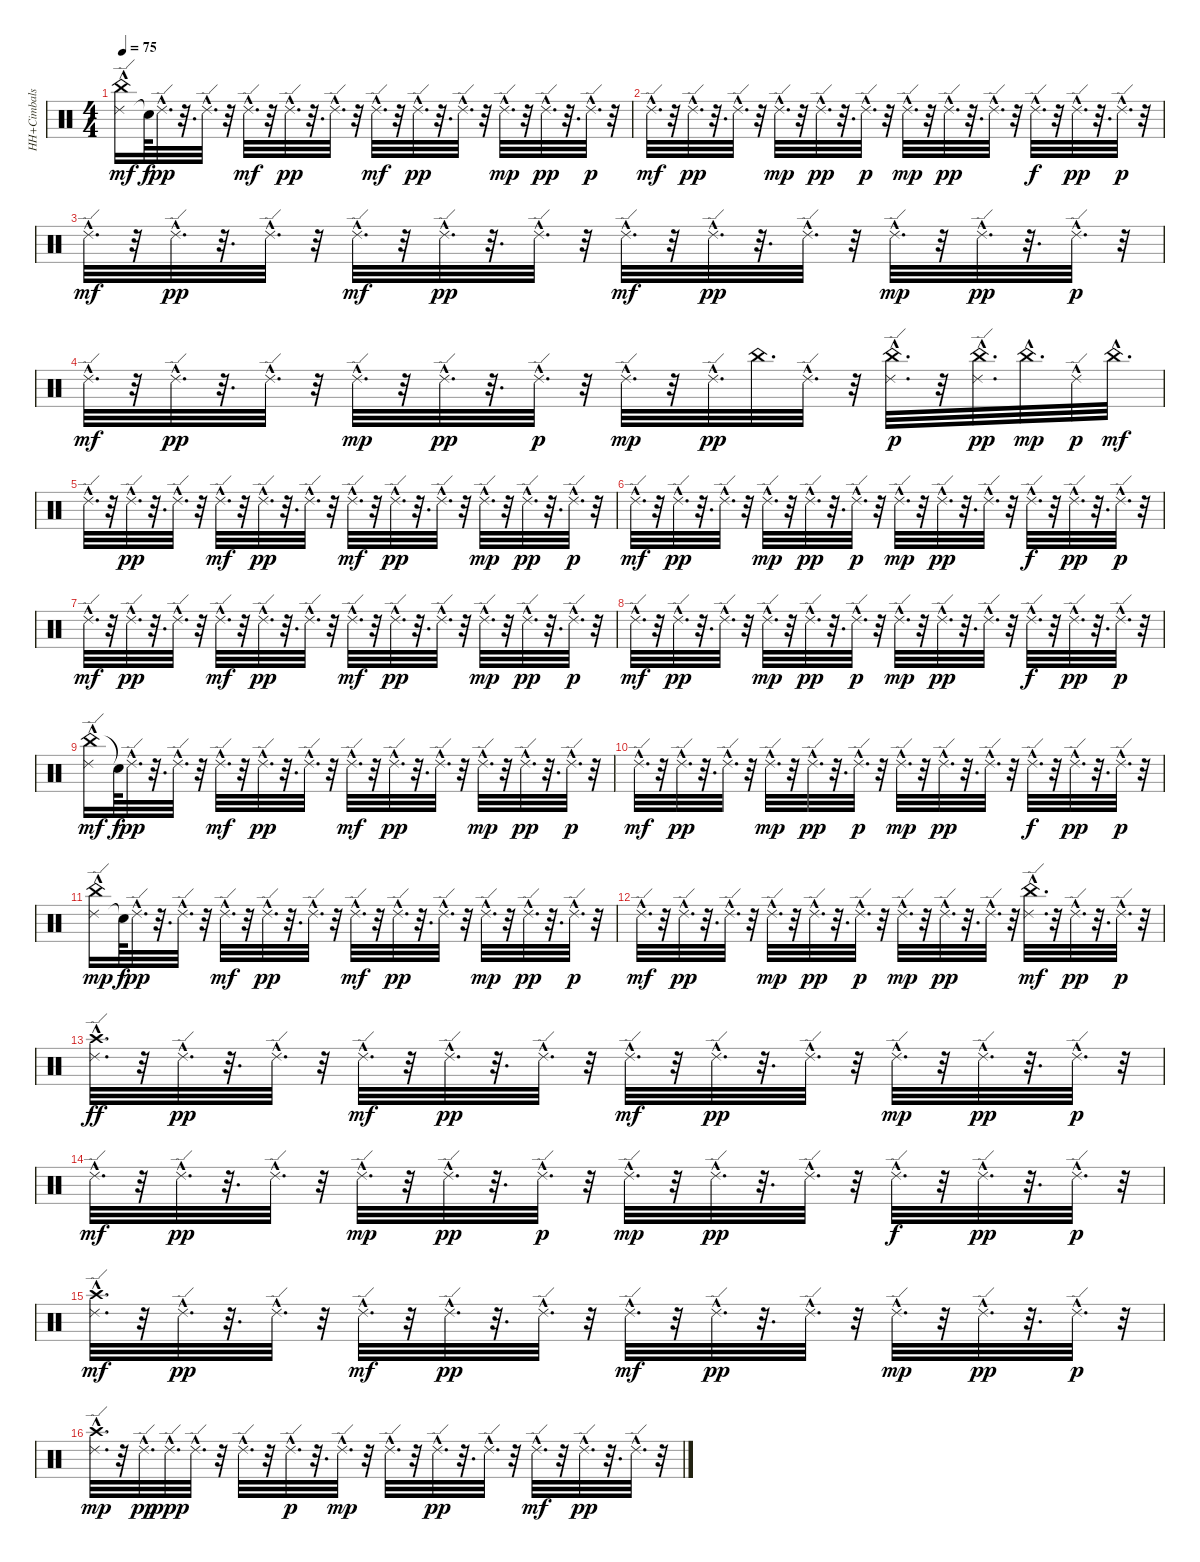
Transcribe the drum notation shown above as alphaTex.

\track ("HH+Cimbals" "HH+Cimbals") {instrument percussion}
\staff {score}
\articulation defaults
\ts (4 4)
\tempo 75
\clef neutral
\ks c
("Ride (edge) 2"{hac} "China (hit)").16{dy mf} "Snare (hit)"{t}.64{dy f} "Ride (edge) 2"{hac}.32{d dy pp} r.32{d} "Ride (edge) 2"{hac}.32{d} r.32 "Ride (edge) 2"{hac}.32{d dy mf} r.32 "Ride (edge) 2"{hac}.32{d dy pp} r.32{d} "Ride (edge) 2"{hac}.32{d} r.32 "Ride (edge) 2"{hac}.32{d dy mf} r.32 "Ride (edge) 2"{hac}.32{d dy pp} r.32{d} "Ride (edge) 2"{hac}.32{d} r.32 "Ride (edge) 2"{hac}.32{d dy mp} r.32 "Ride (edge) 2"{hac}.32{d dy pp} r.32{d} "Ride (edge) 2"{hac}.32{d dy p} r.32 |
"Ride (edge) 2"{hac}.32{d dy mf} r.32 "Ride (edge) 2"{hac}.32{d dy pp} r.32{d} "Ride (edge) 2"{hac}.32{d} r.32 "Ride (edge) 2"{hac}.32{d dy mp} r.32 "Ride (edge) 2"{hac}.32{d dy pp} r.32{d} "Ride (edge) 2"{hac}.32{d dy p} r.32 "Ride (edge) 2"{hac}.32{d dy mp} r.32 "Ride (edge) 2"{hac}.32{d dy pp} r.32{d} "Ride (edge) 2"{hac}.32{d} r.32 "Ride (edge) 2"{hac}.32{d dy f} r.32 "Ride (edge) 2"{hac}.32{d dy pp} r.32{d} "Ride (edge) 2"{hac}.32{d dy p} r.32 |
"Ride (edge) 2"{hac}.32{d dy mf} r.32 "Ride (edge) 2"{hac}.32{d dy pp} r.32{d} "Ride (edge) 2"{hac}.32{d} r.32 "Ride (edge) 2"{hac}.32{d dy mf} r.32 "Ride (edge) 2"{hac}.32{d dy pp} r.32{d} "Ride (edge) 2"{hac}.32{d} r.32 "Ride (edge) 2"{hac}.32{d dy mf} r.32 "Ride (edge) 2"{hac}.32{d dy pp} r.32{d} "Ride (edge) 2"{hac}.32{d} r.32 "Ride (edge) 2"{hac}.32{d dy mp} r.32 "Ride (edge) 2"{hac}.32{d dy pp} r.32{d} "Ride (edge) 2"{hac}.32{d dy p} r.32 |
"Ride (edge) 2"{hac}.32{d dy mf} r.32 "Ride (edge) 2"{hac}.32{d dy pp} r.32{d} "Ride (edge) 2"{hac}.32{d} r.32 "Ride (edge) 2"{hac}.32{d dy mp} r.32 "Ride (edge) 2"{hac}.32{d dy pp} r.32{d} "Ride (edge) 2"{hac}.32{d dy p} r.32 "Ride (edge) 2"{hac}.32{d dy mp} r.32 "Ride (edge) 2"{hac}.32{d dy pp} "China (hit)".32{d} "Ride (edge) 2"{hac}.32{d} r.32 ("Ride (edge) 2"{hac} "China (hit)"{hac}).32{d dy p} r.32 ("China (hit)"{hac} "Ride (edge) 2"{hac}).32{d dy pp} "China (hit)"{hac}.32{d dy mp} "Ride (edge) 2"{hac}.32{dy p} "China (hit)"{hac}.32{d dy mf} |
"Ride (edge) 2"{hac}.32{d} r.32 "Ride (edge) 2"{hac}.32{d dy pp} r.32{d} "Ride (edge) 2"{hac}.32{d} r.32 "Ride (edge) 2"{hac}.32{d dy mf} r.32 "Ride (edge) 2"{hac}.32{d dy pp} r.32{d} "Ride (edge) 2"{hac}.32{d} r.32 "Ride (edge) 2"{hac}.32{d dy mf} r.32 "Ride (edge) 2"{hac}.32{d dy pp} r.32{d} "Ride (edge) 2"{hac}.32{d} r.32 "Ride (edge) 2"{hac}.32{d dy mp} r.32 "Ride (edge) 2"{hac}.32{d dy pp} r.32{d} "Ride (edge) 2"{hac}.32{d dy p} r.32 |
"Ride (edge) 2"{hac}.32{d dy mf} r.32 "Ride (edge) 2"{hac}.32{d dy pp} r.32{d} "Ride (edge) 2"{hac}.32{d} r.32 "Ride (edge) 2"{hac}.32{d dy mp} r.32 "Ride (edge) 2"{hac}.32{d dy pp} r.32{d} "Ride (edge) 2"{hac}.32{d dy p} r.32 "Ride (edge) 2"{hac}.32{d dy mp} r.32 "Ride (edge) 2"{hac}.32{d dy pp} r.32{d} "Ride (edge) 2"{hac}.32{d} r.32 "Ride (edge) 2"{hac}.32{d dy f} r.32 "Ride (edge) 2"{hac}.32{d dy pp} r.32{d} "Ride (edge) 2"{hac}.32{d dy p} r.32 |
"Ride (edge) 2"{hac}.32{d dy mf} r.32 "Ride (edge) 2"{hac}.32{d dy pp} r.32{d} "Ride (edge) 2"{hac}.32{d} r.32 "Ride (edge) 2"{hac}.32{d dy mf} r.32 "Ride (edge) 2"{hac}.32{d dy pp} r.32{d} "Ride (edge) 2"{hac}.32{d} r.32 "Ride (edge) 2"{hac}.32{d dy mf} r.32 "Ride (edge) 2"{hac}.32{d dy pp} r.32{d} "Ride (edge) 2"{hac}.32{d} r.32 "Ride (edge) 2"{hac}.32{d dy mp} r.32 "Ride (edge) 2"{hac}.32{d dy pp} r.32{d} "Ride (edge) 2"{hac}.32{d dy p} r.32 |
"Ride (edge) 2"{hac}.32{d dy mf} r.32 "Ride (edge) 2"{hac}.32{d dy pp} r.32{d} "Ride (edge) 2"{hac}.32{d} r.32 "Ride (edge) 2"{hac}.32{d dy mp} r.32 "Ride (edge) 2"{hac}.32{d dy pp} r.32{d} "Ride (edge) 2"{hac}.32{d dy p} r.32 "Ride (edge) 2"{hac}.32{d dy mp} r.32 "Ride (edge) 2"{hac}.32{d dy pp} r.32{d} "Ride (edge) 2"{hac}.32{d} r.32 "Ride (edge) 2"{hac}.32{d dy f} r.32 "Ride (edge) 2"{hac}.32{d dy pp} r.32{d} "Ride (edge) 2"{hac}.32{d dy p} r.32 |
("China (hit)" "Ride (edge) 2"{hac}).16{dy mf} "Snare (hit)"{t}.64{dy f} "Ride (edge) 2"{hac}.32{d dy pp} r.32{d} "Ride (edge) 2"{hac}.32{d} r.32 "Ride (edge) 2"{hac}.32{d dy mf} r.32 "Ride (edge) 2"{hac}.32{d dy pp} r.32{d} "Ride (edge) 2"{hac}.32{d} r.32 "Ride (edge) 2"{hac}.32{d dy mf} r.32 "Ride (edge) 2"{hac}.32{d dy pp} r.32{d} "Ride (edge) 2"{hac}.32{d} r.32 "Ride (edge) 2"{hac}.32{d dy mp} r.32 "Ride (edge) 2"{hac}.32{d dy pp} r.32{d} "Ride (edge) 2"{hac}.32{d dy p} r.32 |
"Ride (edge) 2"{hac}.32{d dy mf} r.32 "Ride (edge) 2"{hac}.32{d dy pp} r.32{d} "Ride (edge) 2"{hac}.32{d} r.32 "Ride (edge) 2"{hac}.32{d dy mp} r.32 "Ride (edge) 2"{hac}.32{d dy pp} r.32{d} "Ride (edge) 2"{hac}.32{d dy p} r.32 "Ride (edge) 2"{hac}.32{d dy mp} r.32 "Ride (edge) 2"{hac}.32{d dy pp} r.32{d} "Ride (edge) 2"{hac}.32{d} r.32 "Ride (edge) 2"{hac}.32{d dy f} r.32 "Ride (edge) 2"{hac}.32{d dy pp} r.32{d} "Ride (edge) 2"{hac}.32{d dy p} r.32 |
("Ride (edge) 2"{hac} "China (hit)").16{dy mp} "Snare (hit)"{t}.64{dy f} "Ride (edge) 2"{hac}.32{d dy pp} r.32{d} "Ride (edge) 2"{hac}.32{d} r.32 "Ride (edge) 2"{hac}.32{d dy mf} r.32 "Ride (edge) 2"{hac}.32{d dy pp} r.32{d} "Ride (edge) 2"{hac}.32{d} r.32 "Ride (edge) 2"{hac}.32{d dy mf} r.32 "Ride (edge) 2"{hac}.32{d dy pp} r.32{d} "Ride (edge) 2"{hac}.32{d} r.32 "Ride (edge) 2"{hac}.32{d dy mp} r.32 "Ride (edge) 2"{hac}.32{d dy pp} r.32{d} "Ride (edge) 2"{hac}.32{d dy p} r.32 |
"Ride (edge) 2"{hac}.32{d dy mf} r.32 "Ride (edge) 2"{hac}.32{d dy pp} r.32{d} "Ride (edge) 2"{hac}.32{d} r.32 "Ride (edge) 2"{hac}.32{d dy mp} r.32 "Ride (edge) 2"{hac}.32{d dy pp} r.32{d} "Ride (edge) 2"{hac}.32{d dy p} r.32 "Ride (edge) 2"{hac}.32{d dy mp} r.32 "Ride (edge) 2"{hac}.32{d dy pp} r.32{d} "Ride (edge) 2"{hac}.32{d} r.32 ("China (hit)"{hac} "Ride (edge) 2"{hac}).32{d dy mf} r.32 "Ride (edge) 2"{hac}.32{d dy pp} r.32{d} "Ride (edge) 2"{hac}.32{d dy p} r.32 |
("Ride (edge) 2"{hac} "Crash high (hit)"{hac}).32{d dy ff} r.32 "Ride (edge) 2"{hac}.32{d dy pp} r.32{d} "Ride (edge) 2"{hac}.32{d} r.32 "Ride (edge) 2"{hac}.32{d dy mf} r.32 "Ride (edge) 2"{hac}.32{d dy pp} r.32{d} "Ride (edge) 2"{hac}.32{d} r.32 "Ride (edge) 2"{hac}.32{d dy mf} r.32 "Ride (edge) 2"{hac}.32{d dy pp} r.32{d} "Ride (edge) 2"{hac}.32{d} r.32 "Ride (edge) 2"{hac}.32{d dy mp} r.32 "Ride (edge) 2"{hac}.32{d dy pp} r.32{d} "Ride (edge) 2"{hac}.32{d dy p} r.32 |
"Ride (edge) 2"{hac}.32{d dy mf} r.32 "Ride (edge) 2"{hac}.32{d dy pp} r.32{d} "Ride (edge) 2"{hac}.32{d} r.32 "Ride (edge) 2"{hac}.32{d dy mp} r.32 "Ride (edge) 2"{hac}.32{d dy pp} r.32{d} "Ride (edge) 2"{hac}.32{d dy p} r.32 "Ride (edge) 2"{hac}.32{d dy mp} r.32 "Ride (edge) 2"{hac}.32{d dy pp} r.32{d} "Ride (edge) 2"{hac}.32{d} r.32 "Ride (edge) 2"{hac}.32{d dy f} r.32 "Ride (edge) 2"{hac}.32{d dy pp} r.32{d} "Ride (edge) 2"{hac}.32{d dy p} r.32 |
("Crash high (hit)"{hac} "Ride (edge) 2"{hac}).32{d dy mf} r.32 "Ride (edge) 2"{hac}.32{d dy pp} r.32{d} "Ride (edge) 2"{hac}.32{d} r.32 "Ride (edge) 2"{hac}.32{d dy mf} r.32 "Ride (edge) 2"{hac}.32{d dy pp} r.32{d} "Ride (edge) 2"{hac}.32{d} r.32 "Ride (edge) 2"{hac}.32{d dy mf} r.32 "Ride (edge) 2"{hac}.32{d dy pp} r.32{d} "Ride (edge) 2"{hac}.32{d} r.32 "Ride (edge) 2"{hac}.32{d dy mp} r.32 "Ride (edge) 2"{hac}.32{d dy pp} r.32{d} "Ride (edge) 2"{hac}.32{d dy p} r.32 |
("Crash high (hit)"{hac} "Ride (edge) 2"{hac}).32{d dy mp} r.32 "Ride (edge) 2"{hac}.32{d dy pp} "Ride (edge) 2"{hac}.32{d dy ppp} "Ride (edge) 2"{hac}.32{d} r.32 "Ride (edge) 2"{hac}.32{d} r.32 "Ride (edge) 2"{hac}.32{d dy p} r.32{d} "Ride (edge) 2"{hac}.32{d dy mp} r.32 "Ride (edge) 2"{hac}.32{d} r.32 "Ride (edge) 2"{hac}.32{d dy pp} r.32{d} "Ride (edge) 2"{hac}.32{d} r.32 "Ride (edge) 2"{hac}.32{d dy mf} r.32 "Ride (edge) 2"{hac}.32{d dy pp} r.32{d} "Ride (edge) 2"{hac}.32{d} r.32
